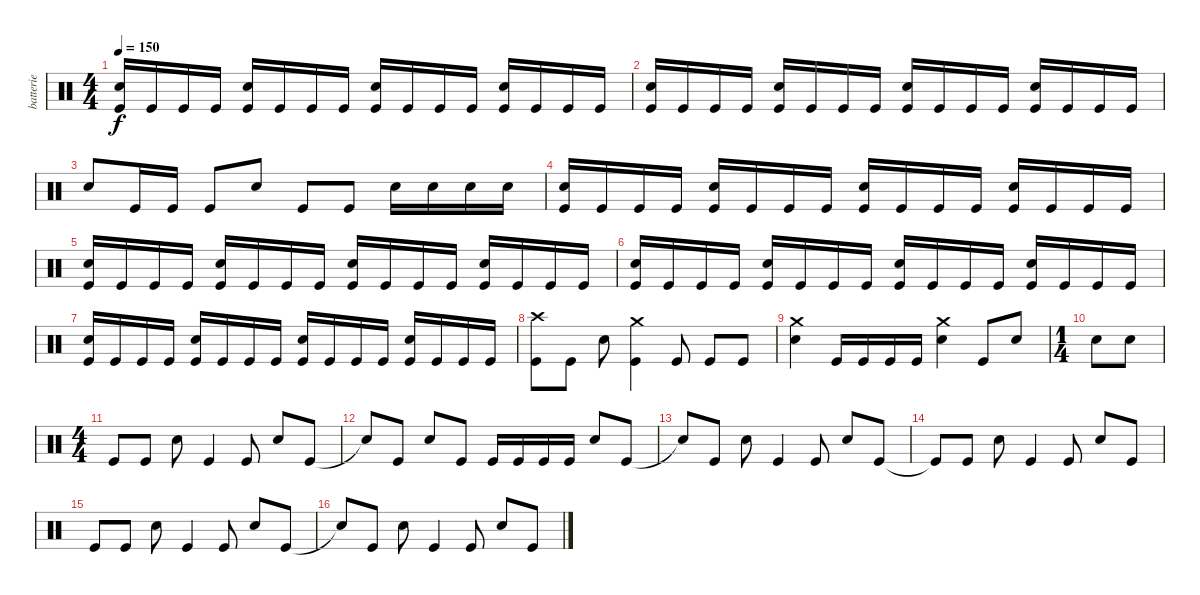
\track ("batterie" "batterie") {instrument percussion}
\staff {score}
\articulation defaults
\ts (4 4)
\tempo 150
\clef neutral
\ks c
("Snare (hit) 2" "Kick (hit)").16{dy f} "Kick (hit)".16 "Kick (hit)".16 "Kick (hit)".16 ("Snare (hit) 2" "Kick (hit)").16 "Kick (hit)".16 "Kick (hit)".16 "Kick (hit)".16 ("Snare (hit) 2" "Kick (hit)").16 "Kick (hit)".16 "Kick (hit)".16 "Kick (hit)".16 ("Snare (hit) 2" "Kick (hit)").16 "Kick (hit)".16 "Kick (hit)".16 "Kick (hit)".16 |
("Snare (hit) 2" "Kick (hit)").16 "Kick (hit)".16 "Kick (hit)".16 "Kick (hit)".16 ("Snare (hit) 2" "Kick (hit)").16 "Kick (hit)".16 "Kick (hit)".16 "Kick (hit)".16 ("Snare (hit) 2" "Kick (hit)").16 "Kick (hit)".16 "Kick (hit)".16 "Kick (hit)".16 ("Snare (hit) 2" "Kick (hit)").16 "Kick (hit)".16 "Kick (hit)".16 "Kick (hit)".16 |
"Snare (hit) 2".8 "Kick (hit)".16 "Kick (hit)".16 "Kick (hit)".8 "Snare (hit) 2".8 "Kick (hit)".8 "Kick (hit)".8 "Snare (hit) 2".16 "Snare (hit) 2".16 "Snare (hit) 2".16 "Snare (hit) 2".16 |
("Snare (hit) 2" "Kick (hit)").16 "Kick (hit)".16 "Kick (hit)".16 "Kick (hit)".16 ("Snare (hit) 2" "Kick (hit)").16 "Kick (hit)".16 "Kick (hit)".16 "Kick (hit)".16 ("Snare (hit) 2" "Kick (hit)").16 "Kick (hit)".16 "Kick (hit)".16 "Kick (hit)".16 ("Snare (hit) 2" "Kick (hit)").16 "Kick (hit)".16 "Kick (hit)".16 "Kick (hit)".16 |
("Snare (hit) 2" "Kick (hit)").16 "Kick (hit)".16 "Kick (hit)".16 "Kick (hit)".16 ("Snare (hit) 2" "Kick (hit)").16 "Kick (hit)".16 "Kick (hit)".16 "Kick (hit)".16 ("Snare (hit) 2" "Kick (hit)").16 "Kick (hit)".16 "Kick (hit)".16 "Kick (hit)".16 ("Snare (hit) 2" "Kick (hit)").16 "Kick (hit)".16 "Kick (hit)".16 "Kick (hit)".16 |
("Snare (hit) 2" "Kick (hit)").16 "Kick (hit)".16 "Kick (hit)".16 "Kick (hit)".16 ("Snare (hit) 2" "Kick (hit)").16 "Kick (hit)".16 "Kick (hit)".16 "Kick (hit)".16 ("Snare (hit) 2" "Kick (hit)").16 "Kick (hit)".16 "Kick (hit)".16 "Kick (hit)".16 ("Snare (hit) 2" "Kick (hit)").16 "Kick (hit)".16 "Kick (hit)".16 "Kick (hit)".16 |
("Snare (hit) 2" "Kick (hit)").16 "Kick (hit)".16 "Kick (hit)".16 "Kick (hit)".16 ("Snare (hit) 2" "Kick (hit)").16 "Kick (hit)".16 "Kick (hit)".16 "Kick (hit)".16 ("Snare (hit) 2" "Kick (hit)").16 "Kick (hit)".16 "Kick (hit)".16 "Kick (hit)".16 ("Snare (hit) 2" "Kick (hit)").16 "Kick (hit)".16 "Kick (hit)".16 "Kick (hit)".16 |
("Crash high (hit)" "Kick (hit)").8 "Kick (hit)".8 "Snare (hit) 2".8 ("Crash medium (hit)" "Kick (hit)").4 "Kick (hit)".8 "Kick (hit)".8 "Kick (hit)".8 |
("Crash medium (hit)" "Snare (hit) 2").4 "Kick (hit)".16 "Kick (hit)".16 "Kick (hit)".16 "Kick (hit)".16 ("Crash medium (hit)" "Snare (hit) 2").4 "Kick (hit)".8 "Snare (hit) 2".8 |
\ts (1 4)
"Snare (hit) 2".8 "Snare (hit) 2".8 |
\ts (4 4)
"Kick (hit)".8 "Kick (hit)".8 "Snare (hit) 2".8 "Kick (hit)".4 "Kick (hit)".8 "Snare (hit) 2".8 "Kick (hit)".8 |
"Snare (hit)"{t}.8 "Kick (hit)".8 "Snare (hit) 2".8 "Kick (hit)".8 "Kick (hit)".16 "Kick (hit)".16 "Kick (hit)".16 "Kick (hit)".16 "Snare (hit) 2".8 "Kick (hit)".8 |
"Snare (hit)"{t}.8 "Kick (hit)".8 "Snare (hit) 2".8 "Kick (hit)".4 "Kick (hit)".8 "Snare (hit) 2".8 "Kick (hit)".8 |
"Kick (hit)"{t}.8 "Kick (hit)".8 "Snare (hit) 2".8 "Kick (hit)".4 "Kick (hit)".8 "Snare (hit) 2".8 "Kick (hit)".8 |
"Kick (hit)".8 "Kick (hit)".8 "Snare (hit) 2".8 "Kick (hit)".4 "Kick (hit)".8 "Snare (hit) 2".8 "Kick (hit)".8 |
"Snare (hit)"{t}.8 "Kick (hit)".8 "Snare (hit) 2".8 "Kick (hit)".4 "Kick (hit)".8 "Snare (hit) 2".8 "Kick (hit)".8
